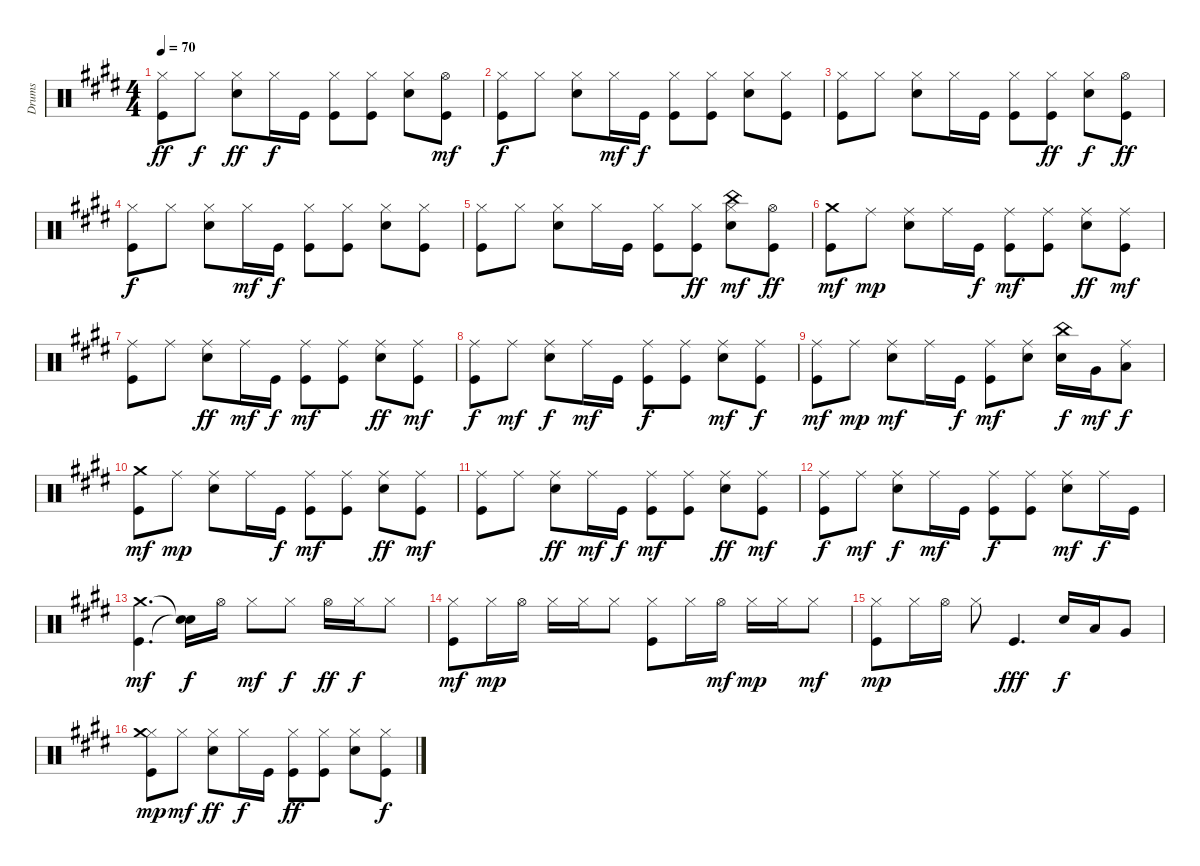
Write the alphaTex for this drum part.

\track ("Drums" "Drums") {instrument percussion}
\staff {score}
\articulation defaults
\ts (4 4)
\tempo 70
\clef neutral
\ks e
("Kick (hit)" "Hi-Hat (closed)").8{dy ff} "Hi-Hat (closed)".8{dy f} ("Snare (hit) 2" "Hi-Hat (closed)").8{dy ff} "Hi-Hat (closed)".16{dy f} "Kick (hit)".16 ("Kick (hit)" "Hi-Hat (closed)").8 ("Kick (hit)" "Hi-Hat (closed)").8 ("Snare (hit) 2" "Hi-Hat (closed)").8 ("Kick (hit)" "Hi-Hat (open)").8{dy mf} |
("Kick (hit)" "Hi-Hat (closed)").8{dy f} "Hi-Hat (closed)".8 ("Snare (hit) 2" "Hi-Hat (closed)").8 "Hi-Hat (closed)".16{dy mf} "Kick (hit)".16{dy f} ("Kick (hit)" "Hi-Hat (closed)").8 ("Kick (hit)" "Hi-Hat (closed)").8 ("Snare (hit) 2" "Hi-Hat (closed)").8 ("Kick (hit)" "Hi-Hat (closed)").8 |
("Kick (hit)" "Hi-Hat (closed)").8 "Hi-Hat (closed)".8 ("Snare (hit) 2" "Hi-Hat (closed)").8 "Hi-Hat (closed)".16 "Kick (hit)".16 ("Kick (hit)" "Hi-Hat (closed)").8 ("Kick (hit)" "Hi-Hat (closed)").8{dy ff} ("Snare (hit) 2" "Hi-Hat (closed)").8{dy f} ("Kick (hit)" "Hi-Hat (open)").8{dy ff} |
("Kick (hit)" "Hi-Hat (closed)").8{dy f} "Hi-Hat (closed)".8 ("Snare (hit) 2" "Hi-Hat (closed)").8 "Hi-Hat (closed)".16{dy mf} "Kick (hit)".16{dy f} ("Kick (hit)" "Hi-Hat (closed)").8 ("Kick (hit)" "Hi-Hat (closed)").8 ("Snare (hit) 2" "Hi-Hat (closed)").8 ("Kick (hit)" "Hi-Hat (closed)").8 |
("Kick (hit)" "Hi-Hat (closed)").8 "Hi-Hat (closed)".8 ("Snare (hit) 2" "Hi-Hat (closed)").8 "Hi-Hat (closed)".16 "Kick (hit)".16 ("Kick (hit)" "Hi-Hat (closed)").8 ("Kick (hit)" "Hi-Hat (closed)").8{dy ff} ("Snare (hit) 2" "Hi-Hat (closed)" "China (hit)").8{dy mf} ("Kick (hit)" "Hi-Hat (open)").8{dy ff} |
("Kick (hit)" "Crash medium (hit)").8{dy mf} "Ride (middle)".8{dy mp} ("Snare (hit) 2" "Ride (middle)").8 "Ride (middle)".16 "Kick (hit)".16{dy f} ("Kick (hit)" "Ride (middle)").8{dy mf} ("Kick (hit)" "Ride (middle)").8 ("Snare (hit) 2" "Ride (middle)").8{dy ff} ("Kick (hit)" "Ride (middle)").8{dy mf} |
("Kick (hit)" "Ride (middle)").8 "Ride (middle)".8 ("Snare (hit) 2" "Ride (middle)").8{dy ff} "Ride (middle)".16{dy mf} "Kick (hit)".16{dy f} ("Kick (hit)" "Ride (middle)").8{dy mf} ("Kick (hit)" "Ride (middle)").8 ("Snare (hit) 2" "Ride (middle)").8{dy ff} ("Kick (hit)" "Ride (middle)").8{dy mf} |
("Kick (hit)" "Ride (middle)").8{dy f} "Ride (middle)".8{dy mf} ("Snare (hit) 2" "Ride (middle)").8{dy f} "Ride (middle)".16{dy mf} "Kick (hit)".16 ("Kick (hit)" "Ride (middle)").8{dy f} ("Kick (hit)" "Ride (middle)").8 ("Snare (hit) 2" "Ride (middle)").8{dy mf} ("Kick (hit)" "Ride (middle)").8{dy f} |
("Kick (hit)" "Ride (middle)").8{dy mf} "Ride (middle)".8{dy mp} ("Snare (hit) 2" "Ride (middle)").8{dy mf} "Ride (middle)".16 "Kick (hit)".16{dy f} ("Kick (hit)" "Ride (middle)").8{dy mf} ("Snare (hit) 2" "Ride (middle)").8 ("Snare (hit) 2" "China (hit)").16{dy f} "Very Low Tom (hit)".16{dy mf} ("Low Floor Tom (hit)" "Ride (middle)").8{dy f} |
("Kick (hit)" "Crash medium (hit)").8{dy mf} "Ride (middle)".8{dy mp} ("Snare (hit) 2" "Ride (middle)").8 "Ride (middle)".16 "Kick (hit)".16{dy f} ("Kick (hit)" "Ride (middle)").8{dy mf} ("Kick (hit)" "Ride (middle)").8 ("Snare (hit) 2" "Ride (middle)").8{dy ff} ("Kick (hit)" "Ride (middle)").8{dy mf} |
("Kick (hit)" "Ride (middle)").8 "Ride (middle)".8 ("Snare (hit) 2" "Ride (middle)").8{dy ff} "Ride (middle)".16{dy mf} "Kick (hit)".16{dy f} ("Kick (hit)" "Ride (middle)").8{dy mf} ("Kick (hit)" "Ride (middle)").8 ("Snare (hit) 2" "Ride (middle)").8{dy ff} ("Kick (hit)" "Ride (middle)").8{dy mf} |
("Kick (hit)" "Ride (middle)").8{dy f} "Ride (middle)".8{dy mf} ("Snare (hit) 2" "Ride (middle)").8{dy f} "Ride (middle)".16{dy mf} "Kick (hit)".16 ("Kick (hit)" "Ride (middle)").8{dy f} ("Kick (hit)" "Ride (middle)").8 ("Snare (hit) 2" "Ride (middle)").8{dy mf} "Ride (middle)".16{dy f} "Kick (hit)".16 |
("Kick (hit)" "Crash medium (hit)").4{d dy mf} ("Snare (hit)"{t} "Snare (hit)"{t}).16{dy f} "Hi-Hat (open)".16 "Hi-Hat (closed)".8{dy mf} "Hi-Hat (closed)".8{dy f} "Hi-Hat (open)".16{dy ff} "Hi-Hat (closed)".16{dy f} "Hi-Hat (closed)".8 |
("Kick (hit)" "Hi-Hat (closed)").8{dy mf} "Hi-Hat (closed)".16{dy mp} "Hi-Hat (open)".16 "Hi-Hat (closed)".16 "Hi-Hat (closed)".16 "Hi-Hat (closed)".8 ("Kick (hit)" "Hi-Hat (closed)").8 "Hi-Hat (closed)".16 "Hi-Hat (open)".16{dy mf} "Hi-Hat (closed)".16{dy mp} "Hi-Hat (closed)".16 "Hi-Hat (closed)".8{dy mf} |
("Kick (hit)" "Hi-Hat (closed)").8{dy mp} "Hi-Hat (closed)".16 "Hi-Hat (open)".16 "Hi-Hat (closed)".8 "Kick (hit)".4{d dy fff} "Snare (hit) 2".16{dy f} "Low Tom (hit)".16 "Very Low Tom (hit)".8 |
("Kick (hit)" "Hi-Hat (closed)" "Crash medium (hit)").8{dy mp} "Hi-Hat (closed)".8{dy mf} ("Snare (hit) 2" "Hi-Hat (closed)").8{dy ff} "Hi-Hat (closed)".16{dy f} "Kick (hit)".16 ("Kick (hit)" "Hi-Hat (closed)").8{dy ff} ("Kick (hit)" "Hi-Hat (closed)").8 ("Snare (hit) 2" "Hi-Hat (closed)").8 ("Kick (hit)" "Hi-Hat (closed)").8{dy f}
